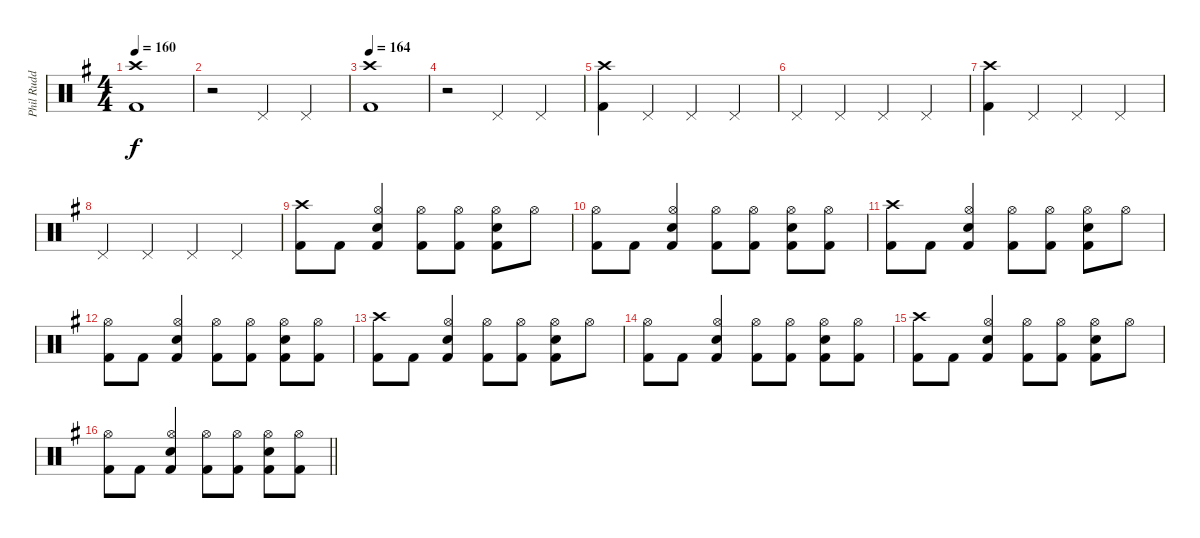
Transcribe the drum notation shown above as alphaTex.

\track ("Phil Rudd" "Phil Rudd") {instrument percussion}
\staff {score}
\articulation defaults
\ts (4 4)
\tempo 160
\clef neutral
\ks eminor
("Crash high (hit)" "Kick (hit) 2").1{dy f} |
r.2 "Pedal Hi-Hat (hit)".4 "Pedal Hi-Hat (hit)".4 |
\tempo 164
("Crash high (hit)" "Kick (hit) 2").1 |
r.2 "Pedal Hi-Hat (hit)".4 "Pedal Hi-Hat (hit)".4 |
("Crash high (hit)" "Kick (hit) 2").4 "Pedal Hi-Hat (hit)".4 "Pedal Hi-Hat (hit)".4 "Pedal Hi-Hat (hit)".4 |
"Pedal Hi-Hat (hit)".4 "Pedal Hi-Hat (hit)".4 "Pedal Hi-Hat (hit)".4 "Pedal Hi-Hat (hit)".4 |
("Crash high (hit)" "Kick (hit) 2").4 "Pedal Hi-Hat (hit)".4 "Pedal Hi-Hat (hit)".4 "Pedal Hi-Hat (hit)".4 |
"Pedal Hi-Hat (hit)".4 "Pedal Hi-Hat (hit)".4 "Pedal Hi-Hat (hit)".4 "Pedal Hi-Hat (hit)".4 |
("Crash high (hit)" "Kick (hit) 2").8 "Kick (hit) 2".8 ("Kick (hit) 2" "Hi-Hat (open)" "Snare (hit) 2").4 ("Hi-Hat (open)" "Kick (hit) 2").8 ("Kick (hit) 2" "Hi-Hat (open)").8 ("Kick (hit) 2" "Hi-Hat (open)" "Snare (hit) 2").8 "Hi-Hat (open)".8 |
("Kick (hit) 2" "Hi-Hat (open)").8 "Kick (hit) 2".8 ("Kick (hit) 2" "Snare (hit) 2" "Hi-Hat (open)").4 ("Kick (hit) 2" "Hi-Hat (open)").8 ("Kick (hit) 2" "Hi-Hat (open)").8 ("Kick (hit) 2" "Snare (hit) 2" "Hi-Hat (open)").8 ("Kick (hit) 2" "Hi-Hat (open)").8 |
("Crash high (hit)" "Kick (hit) 2").8 "Kick (hit) 2".8 ("Kick (hit) 2" "Hi-Hat (open)" "Snare (hit) 2").4 ("Hi-Hat (open)" "Kick (hit) 2").8 ("Kick (hit) 2" "Hi-Hat (open)").8 ("Kick (hit) 2" "Hi-Hat (open)" "Snare (hit) 2").8 "Hi-Hat (open)".8 |
("Kick (hit) 2" "Hi-Hat (open)").8 "Kick (hit) 2".8 ("Kick (hit) 2" "Snare (hit) 2" "Hi-Hat (open)").4 ("Kick (hit) 2" "Hi-Hat (open)").8 ("Kick (hit) 2" "Hi-Hat (open)").8 ("Kick (hit) 2" "Snare (hit) 2" "Hi-Hat (open)").8 ("Kick (hit) 2" "Hi-Hat (open)").8 |
("Crash high (hit)" "Kick (hit) 2").8 "Kick (hit) 2".8 ("Kick (hit) 2" "Hi-Hat (open)" "Snare (hit) 2").4 ("Hi-Hat (open)" "Kick (hit) 2").8 ("Kick (hit) 2" "Hi-Hat (open)").8 ("Kick (hit) 2" "Hi-Hat (open)" "Snare (hit) 2").8 "Hi-Hat (open)".8 |
("Kick (hit) 2" "Hi-Hat (open)").8 "Kick (hit) 2".8 ("Kick (hit) 2" "Snare (hit) 2" "Hi-Hat (open)").4 ("Kick (hit) 2" "Hi-Hat (open)").8 ("Kick (hit) 2" "Hi-Hat (open)").8 ("Kick (hit) 2" "Snare (hit) 2" "Hi-Hat (open)").8 ("Kick (hit) 2" "Hi-Hat (open)").8 |
("Crash high (hit)" "Kick (hit) 2").8 "Kick (hit) 2".8 ("Kick (hit) 2" "Hi-Hat (open)" "Snare (hit) 2").4 ("Hi-Hat (open)" "Kick (hit) 2").8 ("Kick (hit) 2" "Hi-Hat (open)").8 ("Kick (hit) 2" "Hi-Hat (open)" "Snare (hit) 2").8 "Hi-Hat (open)".8 |
\barLineRight lightlight
("Kick (hit) 2" "Hi-Hat (open)").8 "Kick (hit) 2".8 ("Kick (hit) 2" "Snare (hit) 2" "Hi-Hat (open)").4 ("Kick (hit) 2" "Hi-Hat (open)").8 ("Kick (hit) 2" "Hi-Hat (open)").8 ("Kick (hit) 2" "Snare (hit) 2" "Hi-Hat (open)").8 ("Kick (hit) 2" "Hi-Hat (open)").8
